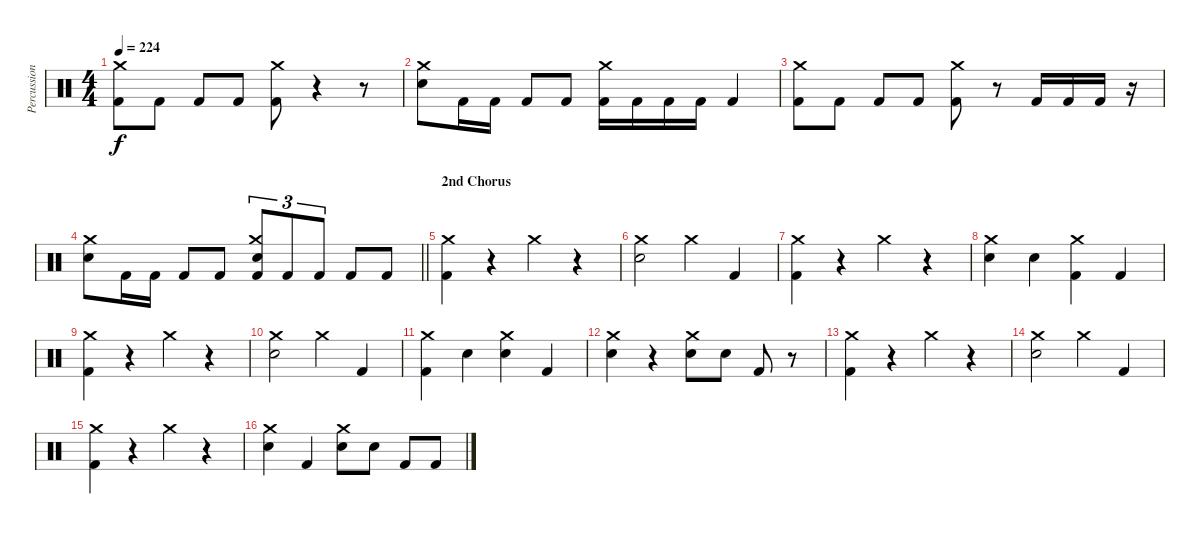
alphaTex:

\track ("Percussion" "Percussion") {instrument percussion}
\staff {score}
\articulation defaults
\ts (4 4)
\tempo 224
\clef neutral
\ks c
("Kick (hit) 2" "Crash medium (hit)").8{dy f} "Kick (hit) 2".8 "Kick (hit) 2".8 "Kick (hit) 2".8 ("Kick (hit) 2" "Crash medium (hit)").8 r.4 r.8 |
("Snare (hit) 2" "Crash medium (hit)").8 "Kick (hit) 2".16 "Kick (hit) 2".16 "Kick (hit) 2".8 "Kick (hit) 2".8 ("Kick (hit) 2" "Crash medium (hit)").16 "Kick (hit) 2".16 "Kick (hit) 2".16 "Kick (hit) 2".16 "Kick (hit) 2".4 |
("Kick (hit) 2" "Crash medium (hit)").8 "Kick (hit) 2".8 "Kick (hit) 2".8 "Kick (hit) 2".8 ("Kick (hit) 2" "Crash medium (hit)").8 r.8 "Kick (hit) 2".16 "Kick (hit) 2".16 "Kick (hit) 2".16 r.16 |
\barLineRight lightlight
("Snare (hit) 2" "Crash medium (hit)").8 "Kick (hit) 2".16 "Kick (hit) 2".16 "Kick (hit) 2".8 "Kick (hit) 2".8 ("Kick (hit) 2" "Snare (hit) 2" "Crash medium (hit)").8{tu (3 2)} "Kick (hit) 2".8{tu (3 2)} "Kick (hit) 2".8{tu (3 2)} "Kick (hit) 2".8 "Kick (hit) 2".8 |
\section ("" "2nd Chorus")
("Kick (hit) 2" "Crash medium (hit)").4 r.4 "Crash medium (hit)".4 r.4 |
("Snare (hit) 2" "Crash medium (hit)").2 "Crash medium (hit)".4 "Kick (hit) 2".4 |
("Kick (hit) 2" "Crash medium (hit)").4 r.4 "Crash medium (hit)".4 r.4 |
("Snare (hit) 2" "Crash medium (hit)").4 "Snare (hit) 2".4 ("Kick (hit) 2" "Crash medium (hit)").4 "Kick (hit) 2".4 |
("Kick (hit) 2" "Crash medium (hit)").4 r.4 "Crash medium (hit)".4 r.4 |
("Snare (hit) 2" "Crash medium (hit)").2 "Crash medium (hit)".4 "Kick (hit) 2".4 |
("Kick (hit) 2" "Crash medium (hit)").4 "Snare (hit) 2".4 ("Snare (hit) 2" "Crash medium (hit)").4 "Kick (hit) 2".4 |
("Snare (hit) 2" "Crash medium (hit)").4 r.4 ("Snare (hit) 2" "Crash medium (hit)").8 "Snare (hit) 2".8 "Kick (hit) 2".8 r.8 |
("Kick (hit) 2" "Crash medium (hit)").4 r.4 "Crash medium (hit)".4 r.4 |
("Snare (hit) 2" "Crash medium (hit)").2 "Crash medium (hit)".4 "Kick (hit) 2".4 |
("Kick (hit) 2" "Crash medium (hit)").4 r.4 "Crash medium (hit)".4 r.4 |
("Snare (hit) 2" "Crash medium (hit)").4 "Kick (hit) 2".4 ("Snare (hit) 2" "Crash medium (hit)").8 "Snare (hit) 2".8 "Kick (hit) 2".8 "Kick (hit) 2".8
